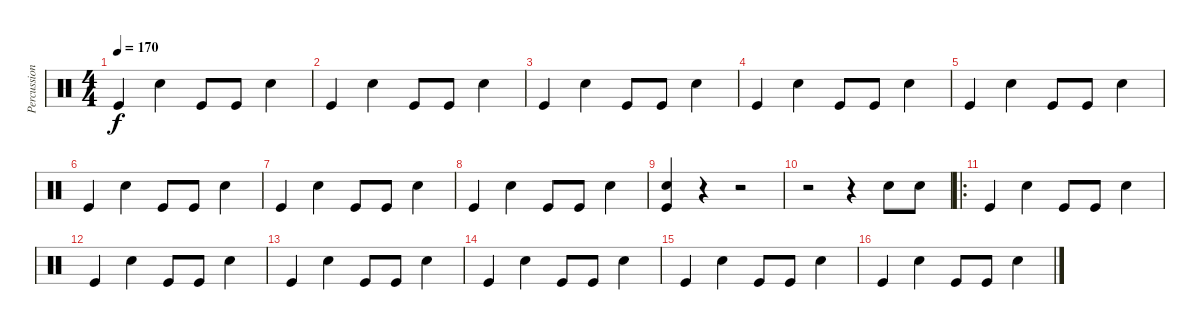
\track ("Percussion" "Percussion") {instrument percussion}
\staff {score}
\articulation defaults
\ts (4 4)
\tempo 170
\clef neutral
\ks c "Kick (hit)".4{dy f} "Snare (hit) 2".4 "Kick (hit)".8 "Kick (hit)".8 "Snare (hit) 2".4
|
"Kick (hit)".4 "Snare (hit) 2".4 "Kick (hit)".8 "Kick (hit)".8 "Snare (hit) 2".4 |
"Kick (hit)".4 "Snare (hit) 2".4 "Kick (hit)".8 "Kick (hit)".8 "Snare (hit) 2".4 |
"Kick (hit)".4 "Snare (hit) 2".4 "Kick (hit)".8 "Kick (hit)".8 "Snare (hit) 2".4 |
"Kick (hit)".4 "Snare (hit) 2".4 "Kick (hit)".8 "Kick (hit)".8 "Snare (hit) 2".4 |
"Kick (hit)".4 "Snare (hit) 2".4 "Kick (hit)".8 "Kick (hit)".8 "Snare (hit) 2".4 |
"Kick (hit)".4 "Snare (hit) 2".4 "Kick (hit)".8 "Kick (hit)".8 "Snare (hit) 2".4 |
"Kick (hit)".4 "Snare (hit) 2".4 "Kick (hit)".8 "Kick (hit)".8 "Snare (hit) 2".4 |
("Snare (hit) 2" "Kick (hit)").4 r.4 r.2 |
r.2 r.4 "Snare (hit) 2".8 "Snare (hit) 2".8 |
\ro "Kick (hit)".4 "Snare (hit) 2".4 "Kick (hit)".8 "Kick (hit)".8 "Snare (hit) 2".4
|
"Kick (hit)".4 "Snare (hit) 2".4 "Kick (hit)".8 "Kick (hit)".8 "Snare (hit) 2".4 |
"Kick (hit)".4 "Snare (hit) 2".4 "Kick (hit)".8 "Kick (hit)".8 "Snare (hit) 2".4 |
"Kick (hit)".4 "Snare (hit) 2".4 "Kick (hit)".8 "Kick (hit)".8 "Snare (hit) 2".4 |
"Kick (hit)".4 "Snare (hit) 2".4 "Kick (hit)".8 "Kick (hit)".8 "Snare (hit) 2".4 |
"Kick (hit)".4 "Snare (hit) 2".4 "Kick (hit)".8 "Kick (hit)".8 "Snare (hit) 2".4
